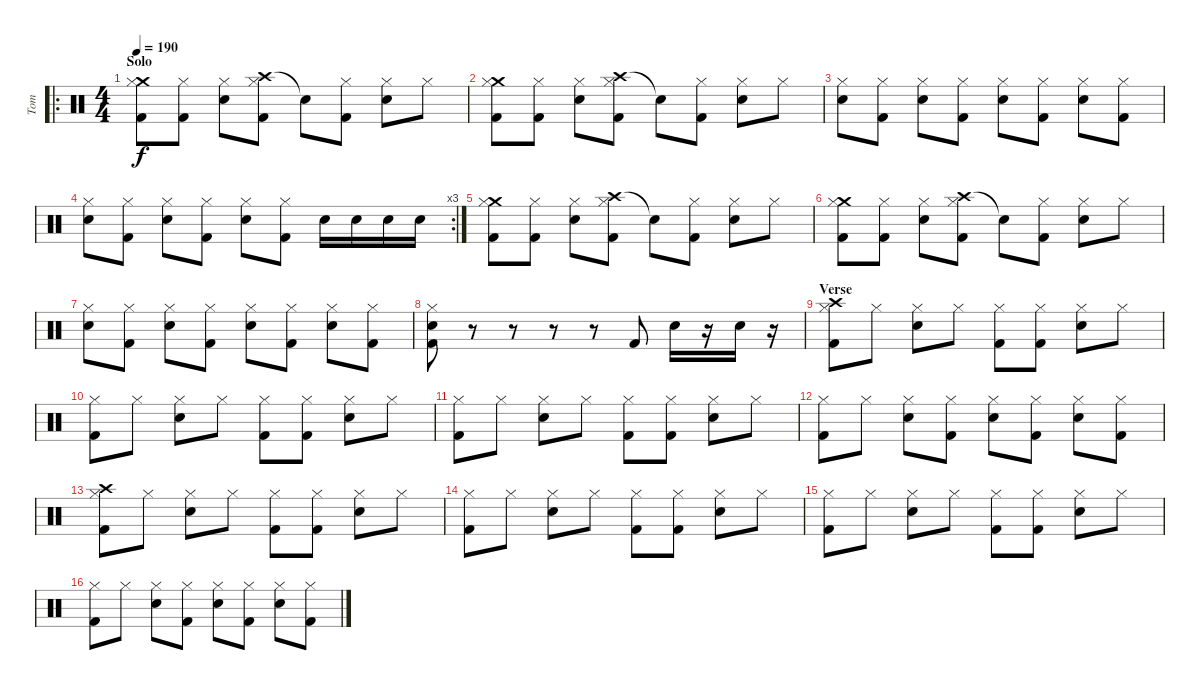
\track ("Tom" "Tom") {instrument percussion}
\staff {score}
\articulation defaults
\ro
\ts (4 4)
\section ("" "Solo")
\tempo 190
\clef neutral
\ks c
("Crash medium (hit)" "Hi-Hat (closed)" "Kick (hit) 2").8{dy f} ("Hi-Hat (closed)" "Kick (hit) 2").8 ("Hi-Hat (closed)" "Electric Snare (hit)").8 ("Crash high (hit)" "Hi-Hat (closed)" "Kick (hit) 2").8 "Snare (hit)"{t}.8 ("Hi-Hat (closed)" "Kick (hit) 2").8 ("Hi-Hat (closed)" "Electric Snare (hit)").8 "Hi-Hat (closed)".8 |
("Crash medium (hit)" "Hi-Hat (closed)" "Kick (hit) 2").8 ("Hi-Hat (closed)" "Kick (hit) 2").8 ("Hi-Hat (closed)" "Electric Snare (hit)").8 ("Crash high (hit)" "Hi-Hat (closed)" "Kick (hit) 2").8 "Snare (hit)"{t}.8 ("Hi-Hat (closed)" "Kick (hit) 2").8 ("Hi-Hat (closed)" "Electric Snare (hit)").8 "Hi-Hat (closed)".8 |
("Hi-Hat (closed)" "Electric Snare (hit)").8 ("Hi-Hat (closed)" "Kick (hit) 2").8 ("Hi-Hat (closed)" "Electric Snare (hit)").8 ("Hi-Hat (closed)" "Kick (hit) 2").8 ("Hi-Hat (closed)" "Electric Snare (hit)").8 ("Hi-Hat (closed)" "Kick (hit) 2").8 ("Hi-Hat (closed)" "Electric Snare (hit)").8 ("Hi-Hat (closed)" "Kick (hit) 2").8 |
\rc 3
("Hi-Hat (closed)" "Electric Snare (hit)").8 ("Hi-Hat (closed)" "Kick (hit) 2").8 ("Hi-Hat (closed)" "Electric Snare (hit)").8 ("Hi-Hat (closed)" "Kick (hit) 2").8 ("Hi-Hat (closed)" "Electric Snare (hit)").8 ("Hi-Hat (closed)" "Kick (hit) 2").8 "Electric Snare (hit)".16 "Electric Snare (hit)".16 "Electric Snare (hit)".16 "Electric Snare (hit)".16 |
("Crash medium (hit)" "Hi-Hat (closed)" "Kick (hit) 2").8 ("Hi-Hat (closed)" "Kick (hit) 2").8 ("Hi-Hat (closed)" "Electric Snare (hit)").8 ("Crash high (hit)" "Hi-Hat (closed)" "Kick (hit) 2").8 "Snare (hit)"{t}.8 ("Hi-Hat (closed)" "Kick (hit) 2").8 ("Hi-Hat (closed)" "Electric Snare (hit)").8 "Hi-Hat (closed)".8 |
("Crash medium (hit)" "Hi-Hat (closed)" "Kick (hit) 2").8 ("Hi-Hat (closed)" "Kick (hit) 2").8 ("Hi-Hat (closed)" "Electric Snare (hit)").8 ("Crash high (hit)" "Hi-Hat (closed)" "Kick (hit) 2").8 "Snare (hit)"{t}.8 ("Hi-Hat (closed)" "Kick (hit) 2").8 ("Hi-Hat (closed)" "Electric Snare (hit)").8 "Hi-Hat (closed)".8 |
("Hi-Hat (closed)" "Electric Snare (hit)").8 ("Hi-Hat (closed)" "Kick (hit) 2").8 ("Hi-Hat (closed)" "Electric Snare (hit)").8 ("Hi-Hat (closed)" "Kick (hit) 2").8 ("Hi-Hat (closed)" "Electric Snare (hit)").8 ("Hi-Hat (closed)" "Kick (hit) 2").8 ("Hi-Hat (closed)" "Electric Snare (hit)").8 ("Hi-Hat (closed)" "Kick (hit) 2").8 |
("Hi-Hat (closed)" "Electric Snare (hit)" "Kick (hit) 2").8 r.8 r.8 r.8 r.8 "Kick (hit) 2".8 "Electric Snare (hit)".16 r.16 "Electric Snare (hit)".16 r.16 |
\section ("" "Verse")
("Crash high (hit)" "Hi-Hat (closed)" "Kick (hit) 2").8 "Hi-Hat (closed)".8 ("Hi-Hat (closed)" "Electric Snare (hit)").8 "Hi-Hat (closed)".8 ("Hi-Hat (closed)" "Kick (hit) 2").8 ("Hi-Hat (closed)" "Kick (hit) 2").8 ("Hi-Hat (closed)" "Electric Snare (hit)").8 "Hi-Hat (closed)".8 |
("Hi-Hat (closed)" "Kick (hit) 2").8 "Hi-Hat (closed)".8 ("Hi-Hat (closed)" "Electric Snare (hit)").8 "Hi-Hat (closed)".8 ("Hi-Hat (closed)" "Kick (hit) 2").8 ("Hi-Hat (closed)" "Kick (hit) 2").8 ("Hi-Hat (closed)" "Electric Snare (hit)").8 "Hi-Hat (closed)".8 |
("Hi-Hat (closed)" "Kick (hit) 2").8 "Hi-Hat (closed)".8 ("Hi-Hat (closed)" "Electric Snare (hit)").8 "Hi-Hat (closed)".8 ("Hi-Hat (closed)" "Kick (hit) 2").8 ("Hi-Hat (closed)" "Kick (hit) 2").8 ("Hi-Hat (closed)" "Electric Snare (hit)").8 "Hi-Hat (closed)".8 |
("Hi-Hat (closed)" "Kick (hit) 2").8 "Hi-Hat (closed)".8 ("Hi-Hat (closed)" "Electric Snare (hit)").8 ("Hi-Hat (closed)" "Kick (hit) 2").8 ("Hi-Hat (closed)" "Electric Snare (hit)").8 ("Hi-Hat (closed)" "Kick (hit) 2").8 ("Hi-Hat (closed)" "Electric Snare (hit)").8 ("Hi-Hat (closed)" "Kick (hit) 2").8 |
("Crash high (hit)" "Hi-Hat (closed)" "Kick (hit) 2").8 "Hi-Hat (closed)".8 ("Hi-Hat (closed)" "Electric Snare (hit)").8 "Hi-Hat (closed)".8 ("Hi-Hat (closed)" "Kick (hit) 2").8 ("Hi-Hat (closed)" "Kick (hit) 2").8 ("Hi-Hat (closed)" "Electric Snare (hit)").8 "Hi-Hat (closed)".8 |
("Hi-Hat (closed)" "Kick (hit) 2").8 "Hi-Hat (closed)".8 ("Hi-Hat (closed)" "Electric Snare (hit)").8 "Hi-Hat (closed)".8 ("Hi-Hat (closed)" "Kick (hit) 2").8 ("Hi-Hat (closed)" "Kick (hit) 2").8 ("Hi-Hat (closed)" "Electric Snare (hit)").8 "Hi-Hat (closed)".8 |
("Hi-Hat (closed)" "Kick (hit) 2").8 "Hi-Hat (closed)".8 ("Hi-Hat (closed)" "Electric Snare (hit)").8 "Hi-Hat (closed)".8 ("Hi-Hat (closed)" "Kick (hit) 2").8 ("Hi-Hat (closed)" "Kick (hit) 2").8 ("Hi-Hat (closed)" "Electric Snare (hit)").8 "Hi-Hat (closed)".8 |
("Hi-Hat (closed)" "Kick (hit) 2").8 "Hi-Hat (closed)".8 ("Hi-Hat (closed)" "Electric Snare (hit)").8 ("Hi-Hat (closed)" "Kick (hit) 2").8 ("Hi-Hat (closed)" "Electric Snare (hit)").8 ("Hi-Hat (closed)" "Kick (hit) 2").8 ("Hi-Hat (closed)" "Electric Snare (hit)").8 ("Hi-Hat (closed)" "Kick (hit) 2").8
